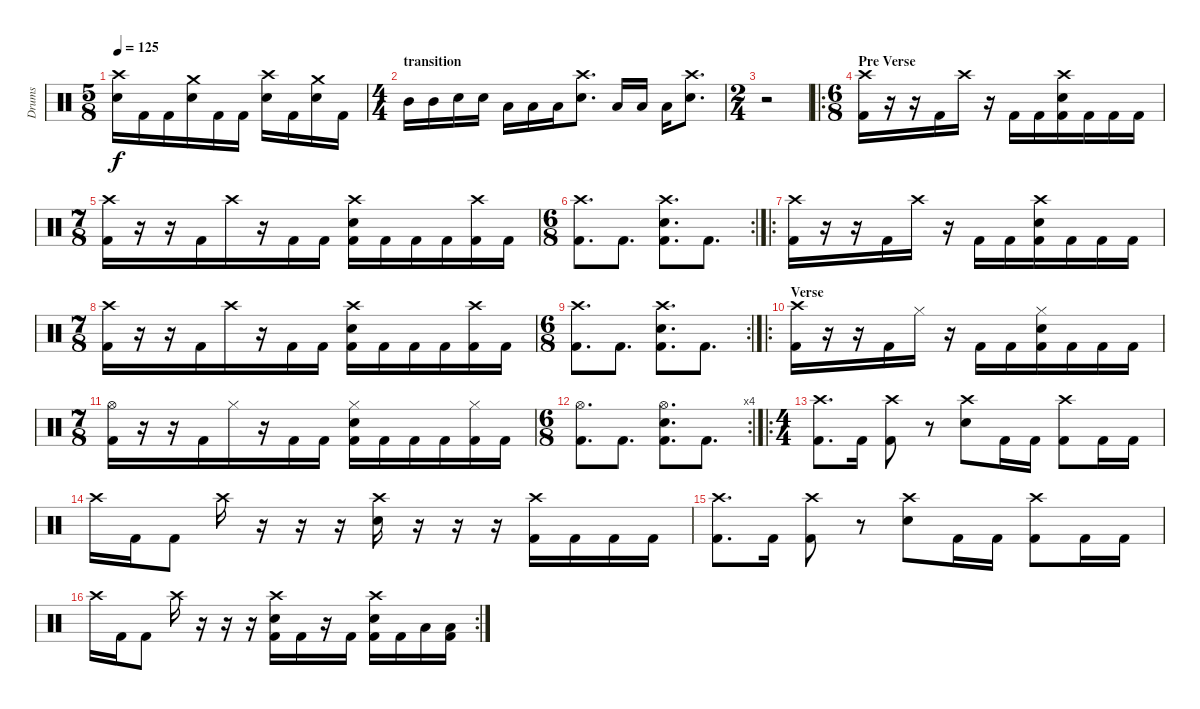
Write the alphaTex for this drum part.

\track ("Drums" "Drums") {instrument percussion}
\staff {score}
\articulation defaults
\ts (5 8)
\tempo 125
\clef neutral
\ks c
("Crash high (hit)" "Electric Snare (hit)").16{dy f} "Kick (hit) 2".16 "Kick (hit) 2".16 ("Crash medium (hit)" "Electric Snare (hit)").16 "Kick (hit) 2".16 "Kick (hit) 2".16 ("Crash high (hit)" "Electric Snare (hit)").16 "Kick (hit) 2".16 ("Crash medium (hit)" "Electric Snare (hit)").16 "Kick (hit) 2".16 |
\ts (4 4)
\section ("" "transition")
"Mid Tom (hit)".16 "Mid Tom (hit)".16 "Electric Snare (hit)".16 "Electric Snare (hit)".16 "Low Tom (hit)".16 "Low Tom (hit)".16 "Low Tom (hit)".16 ("Crash high (hit)" "Electric Snare (hit)").8{d} "Low Tom (hit)".16 "Low Tom (hit)".16 "Low Floor Tom (hit)".16 ("Crash high (hit)" "Electric Snare (hit)").8{d} |
\ts (2 4)
r.2 |
\ro
\ts (6 8)
\section ("" "Pre Verse")
("Crash high (hit)" "Kick (hit) 2").16 r.16 r.16 "Kick (hit) 2".16 "Crash high (hit)".16 r.16 "Kick (hit) 2".16 "Kick (hit) 2".16 ("Crash high (hit)" "Electric Snare (hit)" "Kick (hit) 2").16 "Kick (hit) 2".16 "Kick (hit) 2".16 "Kick (hit) 2".16 |
\ts (7 8)
("Crash high (hit)" "Kick (hit) 2").16 r.16 r.16 "Kick (hit) 2".16 "Crash high (hit)".16 r.16 "Kick (hit) 2".16 "Kick (hit) 2".16 ("Crash high (hit)" "Electric Snare (hit)" "Kick (hit) 2").16 "Kick (hit) 2".16 "Kick (hit) 2".16 "Kick (hit) 2".16 ("Crash high (hit)" "Kick (hit) 2").16 "Kick (hit) 2".16 |
\rc 2
\ts (6 8)
("Crash high (hit)" "Kick (hit) 2").8{d} "Kick (hit) 2".8{d} ("Crash high (hit)" "Electric Snare (hit)" "Kick (hit) 2").8{d} "Kick (hit) 2".8{d} |
\ro
("Crash high (hit)" "Kick (hit) 2").16 r.16 r.16 "Kick (hit) 2".16 "Crash high (hit)".16 r.16 "Kick (hit) 2".16 "Kick (hit) 2".16 ("Crash high (hit)" "Electric Snare (hit)" "Kick (hit) 2").16 "Kick (hit) 2".16 "Kick (hit) 2".16 "Kick (hit) 2".16 |
\ts (7 8)
("Crash high (hit)" "Kick (hit) 2").16 r.16 r.16 "Kick (hit) 2".16 "Crash high (hit)".16 r.16 "Kick (hit) 2".16 "Kick (hit) 2".16 ("Crash high (hit)" "Electric Snare (hit)" "Kick (hit) 2").16 "Kick (hit) 2".16 "Kick (hit) 2".16 "Kick (hit) 2".16 ("Crash high (hit)" "Kick (hit) 2").16 "Kick (hit) 2".16 |
\rc 2
\ts (6 8)
("Crash high (hit)" "Kick (hit) 2").8{d} "Kick (hit) 2".8{d} ("Crash high (hit)" "Electric Snare (hit)" "Kick (hit) 2").8{d} "Kick (hit) 2".8{d} |
\ro
\section ("" "Verse")
("Crash high (hit)" "Kick (hit) 2").16 r.16 r.16 "Kick (hit) 2".16 "Hi-Hat (closed)".16 r.16 "Kick (hit) 2".16 "Kick (hit) 2".16 ("Hi-Hat (closed)" "Electric Snare (hit)" "Kick (hit) 2").16 "Kick (hit) 2".16 "Kick (hit) 2".16 "Kick (hit) 2".16 |
\ts (7 8)
("Hi-Hat (open)" "Kick (hit) 2").16 r.16 r.16 "Kick (hit) 2".16 "Hi-Hat (closed)".16 r.16 "Kick (hit) 2".16 "Kick (hit) 2".16 ("Hi-Hat (closed)" "Electric Snare (hit)" "Kick (hit) 2").16 "Kick (hit) 2".16 "Kick (hit) 2".16 "Kick (hit) 2".16 ("Hi-Hat (closed)" "Kick (hit) 2").16 "Kick (hit) 2".16 |
\rc 4
\ts (6 8)
("Hi-Hat (open)" "Kick (hit) 2").8{d} "Kick (hit) 2".8{d} ("Hi-Hat (open)" "Electric Snare (hit)" "Kick (hit) 2").8{d} "Kick (hit) 2".8{d} |
\ro
\ts (4 4)
("Crash high (hit)" "Kick (hit) 2").8{d} "Kick (hit) 2".16 ("Crash high (hit)" "Kick (hit) 2").8 r.8 ("Crash high (hit)" "Electric Snare (hit)").8 "Kick (hit) 2".16 "Kick (hit) 2".16 ("Crash high (hit)" "Kick (hit) 2").8 "Kick (hit) 2".16 "Kick (hit) 2".16 |
"Crash high (hit)".16 "Kick (hit) 2".16 "Kick (hit) 2".8 "Crash high (hit)".16 r.16 r.16 r.16 ("Crash high (hit)" "Electric Snare (hit)").16 r.16 r.16 r.16 ("Crash high (hit)" "Kick (hit) 2").16 "Kick (hit) 2".16 "Kick (hit) 2".16 "Kick (hit) 2".16 |
("Crash high (hit)" "Kick (hit) 2").8{d} "Kick (hit) 2".16 ("Crash high (hit)" "Kick (hit) 2").8 r.8 ("Crash high (hit)" "Electric Snare (hit)").8 "Kick (hit) 2".16 "Kick (hit) 2".16 ("Crash high (hit)" "Kick (hit) 2").8 "Kick (hit) 2".16 "Kick (hit) 2".16 |
\rc 2 "Crash high (hit)".16 "Kick (hit) 2".16 "Kick (hit) 2".8 "Crash high (hit)".16
r.16 r.16 r.16 ("Crash high (hit)" "Electric Snare (hit)" "Kick (hit) 2").16 "Kick (hit) 2".16 r.16 "Kick (hit) 2".16 ("Crash high (hit)" "Electric Snare (hit)" "Kick (hit) 2").16 "Kick (hit) 2".16 "Low Tom (hit)".16 ("Low Tom (hit)" "Kick (hit) 2").16
